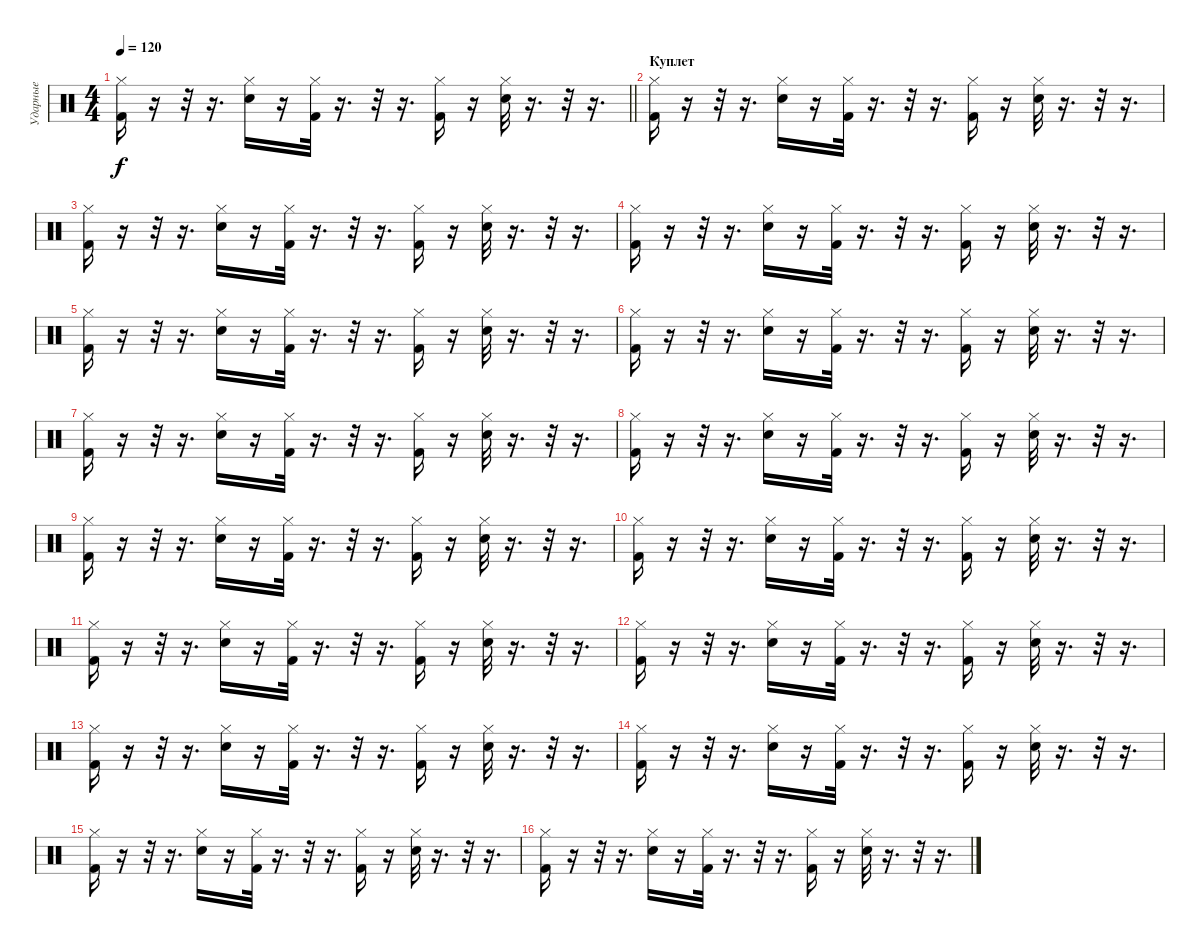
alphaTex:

\track ("Ударные" "Ударные") {instrument percussion}
\staff {score}
\articulation defaults
\ts (4 4)
\tempo 120
\clef neutral
\barLineRight lightlight
\ks c
("Hi-Hat (closed)" "Kick (hit) 2").16{dy f} r.16 r.32 r.16{d} ("Hi-Hat (closed)" "Electric Snare (hit)").16 r.16 ("Hi-Hat (closed)" "Kick (hit) 2").32 r.16{d} r.32 r.16{d} ("Kick (hit) 2" "Hi-Hat (closed)").16 r.16 ("Electric Snare (hit)" "Hi-Hat (closed)").32 r.16{d} r.32 r.16{d} |
\section ("" "Куплет")
("Hi-Hat (closed)" "Kick (hit) 2").16 r.16 r.32 r.16{d} ("Hi-Hat (closed)" "Electric Snare (hit)").16 r.16 ("Hi-Hat (closed)" "Kick (hit) 2").32 r.16{d} r.32 r.16{d} ("Kick (hit) 2" "Hi-Hat (closed)").16 r.16 ("Electric Snare (hit)" "Hi-Hat (closed)").32 r.16{d} r.32 r.16{d} |
("Hi-Hat (closed)" "Kick (hit) 2").16 r.16 r.32 r.16{d} ("Hi-Hat (closed)" "Electric Snare (hit)").16 r.16 ("Hi-Hat (closed)" "Kick (hit) 2").32 r.16{d} r.32 r.16{d} ("Kick (hit) 2" "Hi-Hat (closed)").16 r.16 ("Electric Snare (hit)" "Hi-Hat (closed)").32 r.16{d} r.32 r.16{d} |
("Hi-Hat (closed)" "Kick (hit) 2").16 r.16 r.32 r.16{d} ("Hi-Hat (closed)" "Electric Snare (hit)").16 r.16 ("Hi-Hat (closed)" "Kick (hit) 2").32 r.16{d} r.32 r.16{d} ("Kick (hit) 2" "Hi-Hat (closed)").16 r.16 ("Electric Snare (hit)" "Hi-Hat (closed)").32 r.16{d} r.32 r.16{d} |
("Hi-Hat (closed)" "Kick (hit) 2").16 r.16 r.32 r.16{d} ("Hi-Hat (closed)" "Electric Snare (hit)").16 r.16 ("Hi-Hat (closed)" "Kick (hit) 2").32 r.16{d} r.32 r.16{d} ("Kick (hit) 2" "Hi-Hat (closed)").16 r.16 ("Electric Snare (hit)" "Hi-Hat (closed)").32 r.16{d} r.32 r.16{d} |
("Hi-Hat (closed)" "Kick (hit) 2").16 r.16 r.32 r.16{d} ("Hi-Hat (closed)" "Electric Snare (hit)").16 r.16 ("Hi-Hat (closed)" "Kick (hit) 2").32 r.16{d} r.32 r.16{d} ("Kick (hit) 2" "Hi-Hat (closed)").16 r.16 ("Electric Snare (hit)" "Hi-Hat (closed)").32 r.16{d} r.32 r.16{d} |
("Hi-Hat (closed)" "Kick (hit) 2").16 r.16 r.32 r.16{d} ("Hi-Hat (closed)" "Electric Snare (hit)").16 r.16 ("Hi-Hat (closed)" "Kick (hit) 2").32 r.16{d} r.32 r.16{d} ("Kick (hit) 2" "Hi-Hat (closed)").16 r.16 ("Electric Snare (hit)" "Hi-Hat (closed)").32 r.16{d} r.32 r.16{d} |
("Hi-Hat (closed)" "Kick (hit) 2").16 r.16 r.32 r.16{d} ("Hi-Hat (closed)" "Electric Snare (hit)").16 r.16 ("Hi-Hat (closed)" "Kick (hit) 2").32 r.16{d} r.32 r.16{d} ("Kick (hit) 2" "Hi-Hat (closed)").16 r.16 ("Electric Snare (hit)" "Hi-Hat (closed)").32 r.16{d} r.32 r.16{d} |
("Hi-Hat (closed)" "Kick (hit) 2").16 r.16 r.32 r.16{d} ("Hi-Hat (closed)" "Electric Snare (hit)").16 r.16 ("Hi-Hat (closed)" "Kick (hit) 2").32 r.16{d} r.32 r.16{d} ("Kick (hit) 2" "Hi-Hat (closed)").16 r.16 ("Electric Snare (hit)" "Hi-Hat (closed)").32 r.16{d} r.32 r.16{d} |
("Hi-Hat (closed)" "Kick (hit) 2").16 r.16 r.32 r.16{d} ("Hi-Hat (closed)" "Electric Snare (hit)").16 r.16 ("Hi-Hat (closed)" "Kick (hit) 2").32 r.16{d} r.32 r.16{d} ("Kick (hit) 2" "Hi-Hat (closed)").16 r.16 ("Electric Snare (hit)" "Hi-Hat (closed)").32 r.16{d} r.32 r.16{d} |
("Hi-Hat (closed)" "Kick (hit) 2").16 r.16 r.32 r.16{d} ("Hi-Hat (closed)" "Electric Snare (hit)").16 r.16 ("Hi-Hat (closed)" "Kick (hit) 2").32 r.16{d} r.32 r.16{d} ("Kick (hit) 2" "Hi-Hat (closed)").16 r.16 ("Electric Snare (hit)" "Hi-Hat (closed)").32 r.16{d} r.32 r.16{d} |
("Hi-Hat (closed)" "Kick (hit) 2").16 r.16 r.32 r.16{d} ("Hi-Hat (closed)" "Electric Snare (hit)").16 r.16 ("Hi-Hat (closed)" "Kick (hit) 2").32 r.16{d} r.32 r.16{d} ("Kick (hit) 2" "Hi-Hat (closed)").16 r.16 ("Electric Snare (hit)" "Hi-Hat (closed)").32 r.16{d} r.32 r.16{d} |
("Hi-Hat (closed)" "Kick (hit) 2").16 r.16 r.32 r.16{d} ("Hi-Hat (closed)" "Electric Snare (hit)").16 r.16 ("Hi-Hat (closed)" "Kick (hit) 2").32 r.16{d} r.32 r.16{d} ("Kick (hit) 2" "Hi-Hat (closed)").16 r.16 ("Electric Snare (hit)" "Hi-Hat (closed)").32 r.16{d} r.32 r.16{d} |
("Hi-Hat (closed)" "Kick (hit) 2").16 r.16 r.32 r.16{d} ("Hi-Hat (closed)" "Electric Snare (hit)").16 r.16 ("Hi-Hat (closed)" "Kick (hit) 2").32 r.16{d} r.32 r.16{d} ("Kick (hit) 2" "Hi-Hat (closed)").16 r.16 ("Electric Snare (hit)" "Hi-Hat (closed)").32 r.16{d} r.32 r.16{d} |
("Hi-Hat (closed)" "Kick (hit) 2").16 r.16 r.32 r.16{d} ("Hi-Hat (closed)" "Electric Snare (hit)").16 r.16 ("Hi-Hat (closed)" "Kick (hit) 2").32 r.16{d} r.32 r.16{d} ("Kick (hit) 2" "Hi-Hat (closed)").16 r.16 ("Electric Snare (hit)" "Hi-Hat (closed)").32 r.16{d} r.32 r.16{d} |
("Hi-Hat (closed)" "Kick (hit) 2").16 r.16 r.32 r.16{d} ("Hi-Hat (closed)" "Electric Snare (hit)").16 r.16 ("Hi-Hat (closed)" "Kick (hit) 2").32 r.16{d} r.32 r.16{d} ("Kick (hit) 2" "Hi-Hat (closed)").16 r.16 ("Electric Snare (hit)" "Hi-Hat (closed)").32 r.16{d} r.32 r.16{d}
